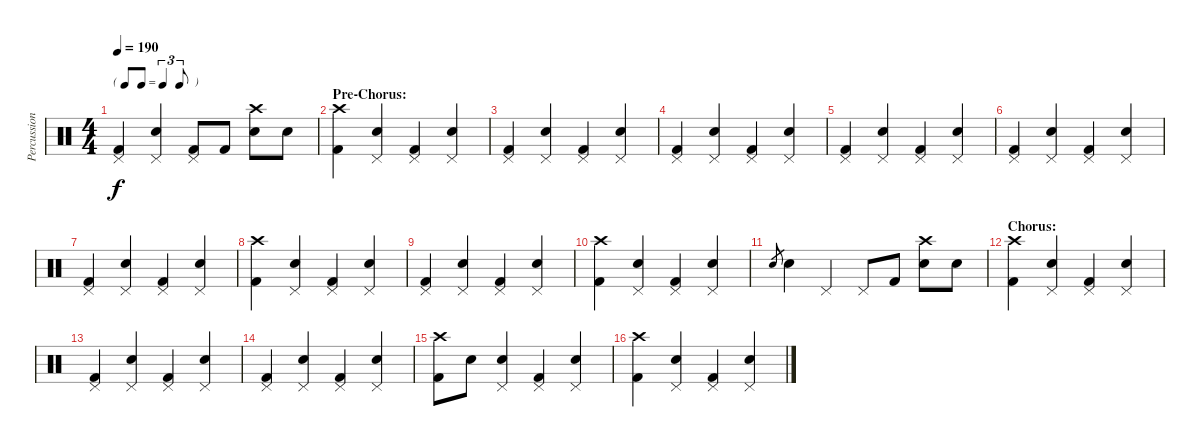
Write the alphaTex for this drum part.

\track ("Percussion" "Percussion") {instrument percussion}
\staff {score}
\articulation defaults
\ts (4 4)
\tf triplet8th
\tempo 190
\clef neutral
\ks c
("Pedal Hi-Hat (hit)" "Kick (hit) 2").4{dy f} ("Pedal Hi-Hat (hit)" "Electric Snare (hit)").4 ("Pedal Hi-Hat (hit)" "Kick (hit) 2").8 "Kick (hit) 2".8 ("Crash high (hit)" "Electric Snare (hit)").8 "Electric Snare (hit)".8 |
\section ("" "Pre-Chorus:")
("Crash high (hit)" "Kick (hit) 2").4 ("Pedal Hi-Hat (hit)" "Electric Snare (hit)").4 ("Pedal Hi-Hat (hit)" "Kick (hit) 2").4 ("Pedal Hi-Hat (hit)" "Electric Snare (hit)").4 |
("Pedal Hi-Hat (hit)" "Kick (hit) 2").4 ("Pedal Hi-Hat (hit)" "Electric Snare (hit)").4 ("Pedal Hi-Hat (hit)" "Kick (hit) 2").4 ("Pedal Hi-Hat (hit)" "Electric Snare (hit)").4 |
("Pedal Hi-Hat (hit)" "Kick (hit) 2").4 ("Pedal Hi-Hat (hit)" "Electric Snare (hit)").4 ("Pedal Hi-Hat (hit)" "Kick (hit) 2").4 ("Pedal Hi-Hat (hit)" "Electric Snare (hit)").4 |
("Pedal Hi-Hat (hit)" "Kick (hit) 2").4 ("Pedal Hi-Hat (hit)" "Electric Snare (hit)").4 ("Pedal Hi-Hat (hit)" "Kick (hit) 2").4 ("Pedal Hi-Hat (hit)" "Electric Snare (hit)").4 |
("Pedal Hi-Hat (hit)" "Kick (hit) 2").4 ("Pedal Hi-Hat (hit)" "Electric Snare (hit)").4 ("Pedal Hi-Hat (hit)" "Kick (hit) 2").4 ("Pedal Hi-Hat (hit)" "Electric Snare (hit)").4 |
("Pedal Hi-Hat (hit)" "Kick (hit) 2").4 ("Pedal Hi-Hat (hit)" "Electric Snare (hit)").4 ("Pedal Hi-Hat (hit)" "Kick (hit) 2").4 ("Pedal Hi-Hat (hit)" "Electric Snare (hit)").4 |
("Crash high (hit)" "Kick (hit) 2").4 ("Pedal Hi-Hat (hit)" "Electric Snare (hit)").4 ("Pedal Hi-Hat (hit)" "Kick (hit) 2").4 ("Pedal Hi-Hat (hit)" "Electric Snare (hit)").4 |
("Pedal Hi-Hat (hit)" "Kick (hit) 2").4 ("Pedal Hi-Hat (hit)" "Electric Snare (hit)").4 ("Pedal Hi-Hat (hit)" "Kick (hit) 2").4 ("Pedal Hi-Hat (hit)" "Electric Snare (hit)").4 |
("Crash high (hit)" "Kick (hit) 2").4 ("Pedal Hi-Hat (hit)" "Electric Snare (hit)").4 ("Pedal Hi-Hat (hit)" "Kick (hit) 2").4 ("Pedal Hi-Hat (hit)" "Electric Snare (hit)").4 |
"Electric Snare (hit)".8{gr} "Electric Snare (hit)".4 "Pedal Hi-Hat (hit)".4 "Pedal Hi-Hat (hit)".8 "Kick (hit) 2".8 ("Crash high (hit)" "Electric Snare (hit)").8 "Electric Snare (hit)".8 |
\section ("" "Chorus:")
("Crash high (hit)" "Kick (hit) 2").4 ("Pedal Hi-Hat (hit)" "Electric Snare (hit)").4 ("Pedal Hi-Hat (hit)" "Kick (hit) 2").4 ("Pedal Hi-Hat (hit)" "Electric Snare (hit)").4 |
("Pedal Hi-Hat (hit)" "Kick (hit) 2").4 ("Pedal Hi-Hat (hit)" "Electric Snare (hit)").4 ("Pedal Hi-Hat (hit)" "Kick (hit) 2").4 ("Pedal Hi-Hat (hit)" "Electric Snare (hit)").4 |
("Pedal Hi-Hat (hit)" "Kick (hit) 2").4 ("Pedal Hi-Hat (hit)" "Electric Snare (hit)").4 ("Pedal Hi-Hat (hit)" "Kick (hit) 2").4 ("Pedal Hi-Hat (hit)" "Electric Snare (hit)").4 |
("Crash high (hit)" "Kick (hit) 2").8 "Electric Snare (hit)".8 ("Pedal Hi-Hat (hit)" "Electric Snare (hit)").4 ("Pedal Hi-Hat (hit)" "Kick (hit) 2").4 ("Pedal Hi-Hat (hit)" "Electric Snare (hit)").4 |
("Crash high (hit)" "Kick (hit) 2").4 ("Pedal Hi-Hat (hit)" "Electric Snare (hit)").4 ("Pedal Hi-Hat (hit)" "Kick (hit) 2").4 ("Pedal Hi-Hat (hit)" "Electric Snare (hit)").4
